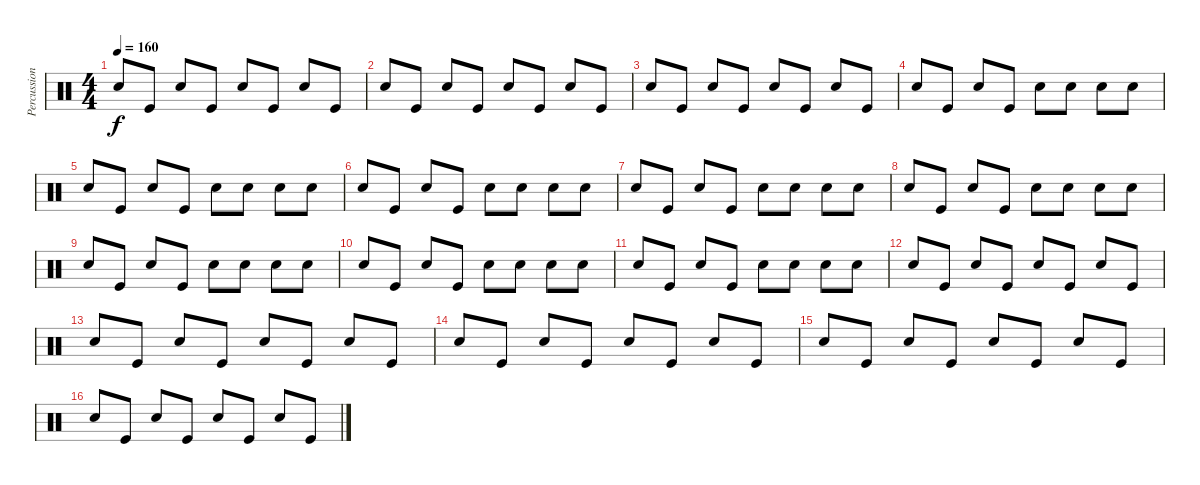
\track ("Percussions" "Percussion") {instrument percussion}
\staff {score}
\articulation defaults
\ts (4 4)
\tempo 160
\clef neutral
\ks c "Snare (hit) 2".8{dy f} "Kick (hit)".8 "Snare (hit) 2".8 "Kick (hit)".8 "Snare (hit) 2".8 "Kick (hit)".8 "Snare (hit) 2".8 "Kick (hit)".8
|
"Snare (hit) 2".8 "Kick (hit)".8 "Snare (hit) 2".8 "Kick (hit)".8 "Snare (hit) 2".8 "Kick (hit)".8 "Snare (hit) 2".8 "Kick (hit)".8 |
"Snare (hit) 2".8 "Kick (hit)".8 "Snare (hit) 2".8 "Kick (hit)".8 "Snare (hit) 2".8 "Kick (hit)".8 "Snare (hit) 2".8 "Kick (hit)".8 |
"Snare (hit) 2".8 "Kick (hit)".8 "Snare (hit) 2".8 "Kick (hit)".8 "Snare (hit) 2".8 "Hand Clap (hit)".8 "Hand Clap (hit)".8 "Hand Clap (hit)".8 |
"Snare (hit) 2".8 "Kick (hit)".8 "Snare (hit) 2".8 "Kick (hit)".8 "Snare (hit) 2".8 "Hand Clap (hit)".8 "Hand Clap (hit)".8 "Hand Clap (hit)".8 |
"Snare (hit) 2".8 "Kick (hit)".8 "Snare (hit) 2".8 "Kick (hit)".8 "Snare (hit) 2".8 "Hand Clap (hit)".8 "Hand Clap (hit)".8 "Hand Clap (hit)".8 |
"Snare (hit) 2".8 "Kick (hit)".8 "Snare (hit) 2".8 "Kick (hit)".8 "Snare (hit) 2".8 "Hand Clap (hit)".8 "Hand Clap (hit)".8 "Hand Clap (hit)".8 |
"Snare (hit) 2".8 "Kick (hit)".8 "Snare (hit) 2".8 "Kick (hit)".8 "Snare (hit) 2".8 "Hand Clap (hit)".8 "Hand Clap (hit)".8 "Hand Clap (hit)".8 |
"Snare (hit) 2".8 "Kick (hit)".8 "Snare (hit) 2".8 "Kick (hit)".8 "Snare (hit) 2".8 "Hand Clap (hit)".8 "Hand Clap (hit)".8 "Hand Clap (hit)".8 |
"Snare (hit) 2".8 "Kick (hit)".8 "Snare (hit) 2".8 "Kick (hit)".8 "Snare (hit) 2".8 "Hand Clap (hit)".8 "Hand Clap (hit)".8 "Hand Clap (hit)".8 |
"Snare (hit) 2".8 "Kick (hit)".8 "Snare (hit) 2".8 "Kick (hit)".8 "Snare (hit) 2".8 "Hand Clap (hit)".8 "Hand Clap (hit)".8 "Hand Clap (hit)".8 |
"Snare (hit) 2".8 "Kick (hit)".8 "Snare (hit) 2".8 "Kick (hit)".8 "Snare (hit) 2".8 "Kick (hit)".8 "Snare (hit) 2".8 "Kick (hit)".8 |
"Snare (hit) 2".8 "Kick (hit)".8 "Snare (hit) 2".8 "Kick (hit)".8 "Snare (hit) 2".8 "Kick (hit)".8 "Snare (hit) 2".8 "Kick (hit)".8 |
"Snare (hit) 2".8 "Kick (hit)".8 "Snare (hit) 2".8 "Kick (hit)".8 "Snare (hit) 2".8 "Kick (hit)".8 "Snare (hit) 2".8 "Kick (hit)".8 |
"Snare (hit) 2".8 "Kick (hit)".8 "Snare (hit) 2".8 "Kick (hit)".8 "Snare (hit) 2".8 "Kick (hit)".8 "Snare (hit) 2".8 "Kick (hit)".8 |
"Snare (hit) 2".8 "Kick (hit)".8 "Snare (hit) 2".8 "Kick (hit)".8 "Snare (hit) 2".8 "Kick (hit)".8 "Snare (hit) 2".8 "Kick (hit)".8
